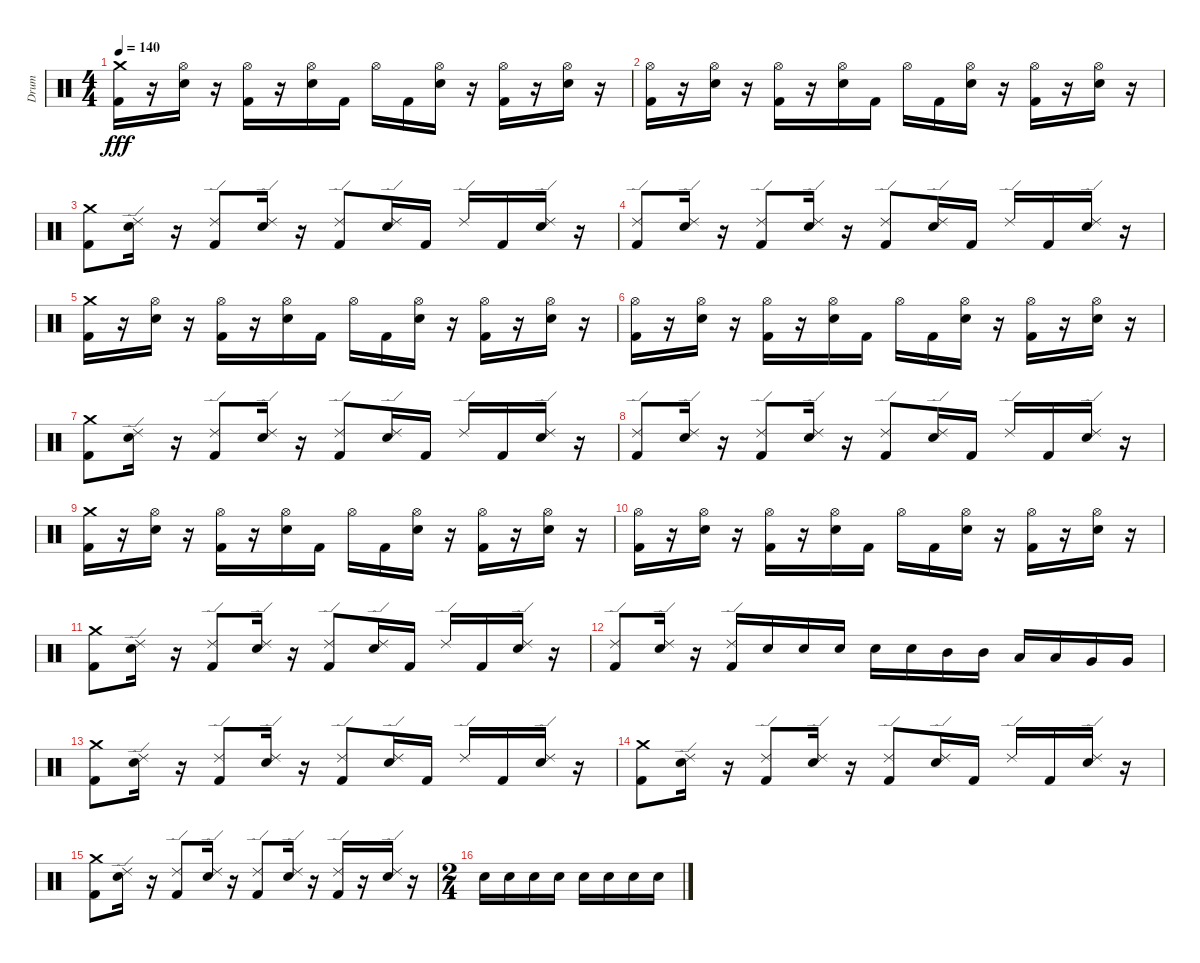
\track ("Drum" "Drum") {instrument percussion}
\staff {score}
\articulation defaults
\ts (4 4)
\tempo 140
\clef neutral
\ks c
("Kick (hit) 2" "Crash medium (hit)").16{dy fff} r.16 ("Hi-Hat (open)" "Snare (hit) 2").16 r.16 ("Hi-Hat (open)" "Kick (hit) 2").16 r.16 ("Hi-Hat (open)" "Snare (hit) 2").16 "Kick (hit) 2".16 "Hi-Hat (open)".16 "Kick (hit) 2".16 ("Hi-Hat (open)" "Snare (hit) 2").16 r.16 ("Hi-Hat (open)" "Kick (hit) 2").16 r.16 ("Hi-Hat (open)" "Snare (hit) 2").16 r.16 |
("Hi-Hat (open)" "Kick (hit) 2").16 r.16 ("Hi-Hat (open)" "Snare (hit) 2").16 r.16 ("Hi-Hat (open)" "Kick (hit) 2").16 r.16 ("Hi-Hat (open)" "Snare (hit) 2").16 "Kick (hit) 2".16 "Hi-Hat (open)".16 "Kick (hit) 2".16 ("Hi-Hat (open)" "Snare (hit) 2").16 r.16 ("Hi-Hat (open)" "Kick (hit) 2").16 r.16 ("Hi-Hat (open)" "Snare (hit) 2").16 r.16 |
("Kick (hit) 2" "Crash medium (hit)").8 ("Snare (hit) 2" "Ride (edge) 2").16 r.16 ("Kick (hit) 2" "Ride (edge) 2").8 ("Snare (hit) 2" "Ride (edge) 2").16 r.16 ("Kick (hit) 2" "Ride (edge) 2").8 ("Snare (hit) 2" "Ride (edge) 2").16 "Kick (hit) 2".16 "Ride (edge) 2".16 "Kick (hit) 2".16 ("Snare (hit) 2" "Ride (edge) 2").16 r.16 |
("Kick (hit) 2" "Ride (edge) 2").8 ("Snare (hit) 2" "Ride (edge) 2").16 r.16 ("Kick (hit) 2" "Ride (edge) 2").8 ("Snare (hit) 2" "Ride (edge) 2").16 r.16 ("Kick (hit) 2" "Ride (edge) 2").8 ("Snare (hit) 2" "Ride (edge) 2").16 "Kick (hit) 2".16 "Ride (edge) 2".16 "Kick (hit) 2".16 ("Snare (hit) 2" "Ride (edge) 2").16 r.16 |
("Kick (hit) 2" "Crash medium (hit)").16 r.16 ("Hi-Hat (open)" "Snare (hit) 2").16 r.16 ("Hi-Hat (open)" "Kick (hit) 2").16 r.16 ("Hi-Hat (open)" "Snare (hit) 2").16 "Kick (hit) 2".16 "Hi-Hat (open)".16 "Kick (hit) 2".16 ("Hi-Hat (open)" "Snare (hit) 2").16 r.16 ("Hi-Hat (open)" "Kick (hit) 2").16 r.16 ("Hi-Hat (open)" "Snare (hit) 2").16 r.16 |
("Hi-Hat (open)" "Kick (hit) 2").16 r.16 ("Hi-Hat (open)" "Snare (hit) 2").16 r.16 ("Hi-Hat (open)" "Kick (hit) 2").16 r.16 ("Hi-Hat (open)" "Snare (hit) 2").16 "Kick (hit) 2".16 "Hi-Hat (open)".16 "Kick (hit) 2".16 ("Hi-Hat (open)" "Snare (hit) 2").16 r.16 ("Hi-Hat (open)" "Kick (hit) 2").16 r.16 ("Hi-Hat (open)" "Snare (hit) 2").16 r.16 |
("Kick (hit) 2" "Crash medium (hit)").8 ("Snare (hit) 2" "Ride (edge) 2").16 r.16 ("Kick (hit) 2" "Ride (edge) 2").8 ("Snare (hit) 2" "Ride (edge) 2").16 r.16 ("Kick (hit) 2" "Ride (edge) 2").8 ("Snare (hit) 2" "Ride (edge) 2").16 "Kick (hit) 2".16 "Ride (edge) 2".16 "Kick (hit) 2".16 ("Snare (hit) 2" "Ride (edge) 2").16 r.16 |
("Kick (hit) 2" "Ride (edge) 2").8 ("Snare (hit) 2" "Ride (edge) 2").16 r.16 ("Kick (hit) 2" "Ride (edge) 2").8 ("Snare (hit) 2" "Ride (edge) 2").16 r.16 ("Kick (hit) 2" "Ride (edge) 2").8 ("Snare (hit) 2" "Ride (edge) 2").16 "Kick (hit) 2".16 "Ride (edge) 2".16 "Kick (hit) 2".16 ("Snare (hit) 2" "Ride (edge) 2").16 r.16 |
("Kick (hit) 2" "Crash medium (hit)").16 r.16 ("Hi-Hat (open)" "Snare (hit) 2").16 r.16 ("Hi-Hat (open)" "Kick (hit) 2").16 r.16 ("Hi-Hat (open)" "Snare (hit) 2").16 "Kick (hit) 2".16 "Hi-Hat (open)".16 "Kick (hit) 2".16 ("Hi-Hat (open)" "Snare (hit) 2").16 r.16 ("Hi-Hat (open)" "Kick (hit) 2").16 r.16 ("Hi-Hat (open)" "Snare (hit) 2").16 r.16 |
("Hi-Hat (open)" "Kick (hit) 2").16 r.16 ("Hi-Hat (open)" "Snare (hit) 2").16 r.16 ("Hi-Hat (open)" "Kick (hit) 2").16 r.16 ("Hi-Hat (open)" "Snare (hit) 2").16 "Kick (hit) 2".16 "Hi-Hat (open)".16 "Kick (hit) 2".16 ("Hi-Hat (open)" "Snare (hit) 2").16 r.16 ("Hi-Hat (open)" "Kick (hit) 2").16 r.16 ("Hi-Hat (open)" "Snare (hit) 2").16 r.16 |
("Kick (hit) 2" "Crash medium (hit)").8 ("Snare (hit) 2" "Ride (edge) 2").16 r.16 ("Kick (hit) 2" "Ride (edge) 2").8 ("Snare (hit) 2" "Ride (edge) 2").16 r.16 ("Kick (hit) 2" "Ride (edge) 2").8 ("Snare (hit) 2" "Ride (edge) 2").16 "Kick (hit) 2".16 "Ride (edge) 2".16 "Kick (hit) 2".16 ("Snare (hit) 2" "Ride (edge) 2").16 r.16 |
("Kick (hit) 2" "Ride (edge) 2").8 ("Snare (hit) 2" "Ride (edge) 2").16 r.16 ("Kick (hit) 2" "Ride (edge) 2").16 "Snare (hit) 2".16 "Snare (hit) 2".16 "Snare (hit) 2".16 "Snare (hit) 2".16 "Snare (hit) 2".16 "Mid Tom (hit)".16 "Mid Tom (hit)".16 "Low Tom (hit)".16 "Low Tom (hit)".16 "Very Low Tom (hit)".16 "Very Low Tom (hit)".16 |
("Kick (hit) 2" "Crash medium (hit)").8 ("Snare (hit) 2" "Ride (edge) 2").16 r.16 ("Kick (hit) 2" "Ride (edge) 2").8 ("Snare (hit) 2" "Ride (edge) 2").16 r.16 ("Kick (hit) 2" "Ride (edge) 2").8 ("Snare (hit) 2" "Ride (edge) 2").16 "Kick (hit) 2".16 "Ride (edge) 2".16 "Kick (hit) 2".16 ("Snare (hit) 2" "Ride (edge) 2").16 r.16 |
("Kick (hit) 2" "Crash medium (hit)").8 ("Snare (hit) 2" "Ride (edge) 2").16 r.16 ("Kick (hit) 2" "Ride (edge) 2").8 ("Snare (hit) 2" "Ride (edge) 2").16 r.16 ("Kick (hit) 2" "Ride (edge) 2").8 ("Snare (hit) 2" "Ride (edge) 2").16 "Kick (hit) 2".16 "Ride (edge) 2".16 "Kick (hit) 2".16 ("Snare (hit) 2" "Ride (edge) 2").16 r.16 |
("Kick (hit) 2" "Crash medium (hit)").8 ("Snare (hit) 2" "Ride (edge) 2").16 r.16 ("Kick (hit) 2" "Ride (edge) 2").8 ("Snare (hit) 2" "Ride (edge) 2").16 r.16 ("Kick (hit) 2" "Ride (edge) 2").8 ("Snare (hit) 2" "Ride (edge) 2").16 r.16 ("Ride (edge) 2" "Kick (hit) 2").16 r.16 ("Snare (hit) 2" "Ride (edge) 2").16 r.16 |
\ts (2 4)
"Snare (hit) 2".16 "Snare (hit) 2".16 "Snare (hit) 2".16 "Snare (hit) 2".16 "Snare (hit) 2".16 "Snare (hit) 2".16 "Snare (hit) 2".16 "Snare (hit) 2".16
